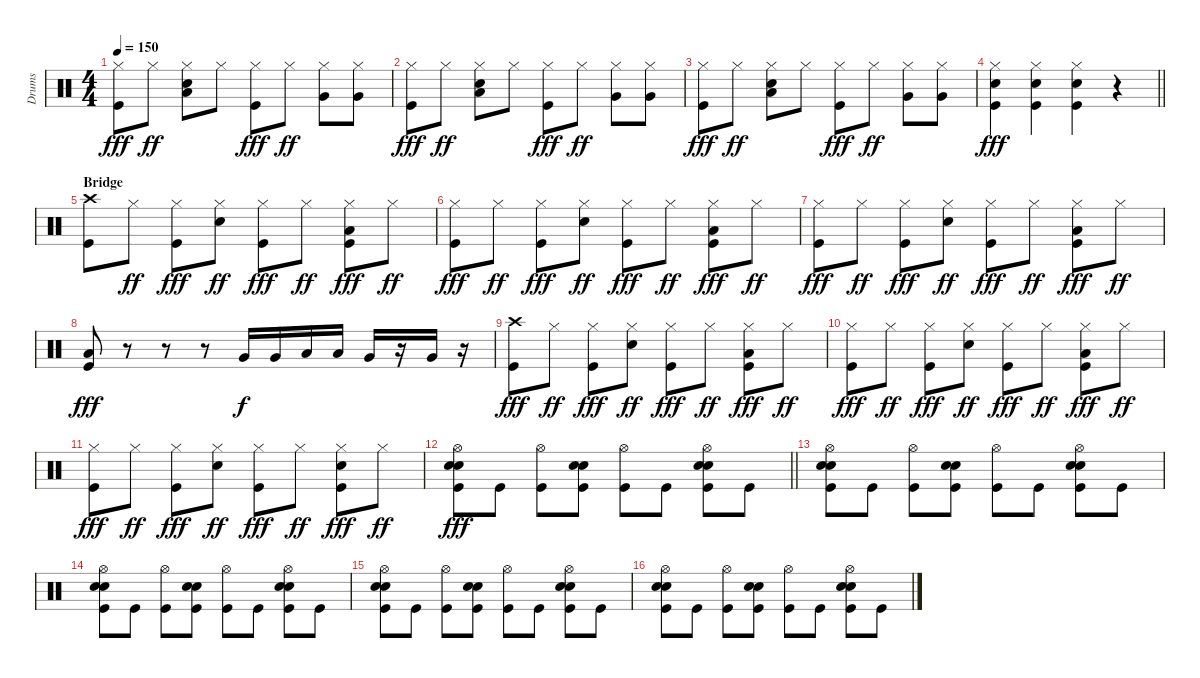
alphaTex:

\track ("Drums" "Drums") {instrument percussion}
\staff {score}
\articulation defaults
\ts (4 4)
\tempo 150
\clef neutral
\ks c
("Hi-Hat (closed)" "Kick (hit)").8{dy fff} "Hi-Hat (closed)".8{dy ff} ("Hi-Hat (closed)" "Snare (hit) 2" "Low Floor Tom (hit)").8 "Hi-Hat (closed)".8 ("Hi-Hat (closed)" "Kick (hit)").8{dy fff} "Hi-Hat (closed)".8{dy ff} ("Hi-Hat (closed)" "Very Low Tom (hit)").8 ("Hi-Hat (closed)" "Very Low Tom (hit)").8 |
("Hi-Hat (closed)" "Kick (hit)").8{dy fff} "Hi-Hat (closed)".8{dy ff} ("Hi-Hat (closed)" "Snare (hit) 2" "Low Floor Tom (hit)").8 "Hi-Hat (closed)".8 ("Hi-Hat (closed)" "Kick (hit)").8{dy fff} "Hi-Hat (closed)".8{dy ff} ("Hi-Hat (closed)" "Very Low Tom (hit)").8 ("Hi-Hat (closed)" "Very Low Tom (hit)").8 |
("Hi-Hat (closed)" "Kick (hit)").8{dy fff} "Hi-Hat (closed)".8{dy ff} ("Hi-Hat (closed)" "Snare (hit) 2" "Low Floor Tom (hit)").8 "Hi-Hat (closed)".8 ("Hi-Hat (closed)" "Kick (hit)").8{dy fff} "Hi-Hat (closed)".8{dy ff} ("Hi-Hat (closed)" "Very Low Tom (hit)").8 ("Hi-Hat (closed)" "Very Low Tom (hit)").8 |
\barLineRight lightlight
("Hi-Hat (closed)" "Snare (hit) 2" "Kick (hit)").4{dy fff} ("Hi-Hat (closed)" "Snare (hit) 2" "Kick (hit)").4 ("Hi-Hat (closed)" "Snare (hit) 2" "Kick (hit)").4 r.4 |
\section ("" "Bridge")
("Crash high (hit)" "Kick (hit)").8 "Hi-Hat (closed)".8{dy ff} ("Hi-Hat (closed)" "Kick (hit)").8{dy fff} ("Hi-Hat (closed)" "Electric Snare (hit)").8{dy ff} ("Hi-Hat (closed)" "Kick (hit)").8{dy fff} "Hi-Hat (closed)".8{dy ff} ("Hi-Hat (closed)" "Low Floor Tom (hit)" "Kick (hit)").8{dy fff} "Hi-Hat (closed)".8{dy ff} |
("Hi-Hat (closed)" "Kick (hit)").8{dy fff} "Hi-Hat (closed)".8{dy ff} ("Hi-Hat (closed)" "Kick (hit)").8{dy fff} ("Hi-Hat (closed)" "Electric Snare (hit)").8{dy ff} ("Hi-Hat (closed)" "Kick (hit)").8{dy fff} "Hi-Hat (closed)".8{dy ff} ("Hi-Hat (closed)" "Low Floor Tom (hit)" "Kick (hit)").8{dy fff} "Hi-Hat (closed)".8{dy ff} |
("Hi-Hat (closed)" "Kick (hit)").8{dy fff} "Hi-Hat (closed)".8{dy ff} ("Hi-Hat (closed)" "Kick (hit)").8{dy fff} ("Hi-Hat (closed)" "Electric Snare (hit)").8{dy ff} ("Hi-Hat (closed)" "Kick (hit)").8{dy fff} "Hi-Hat (closed)".8{dy ff} ("Hi-Hat (closed)" "Low Floor Tom (hit)" "Kick (hit)").8{dy fff} "Hi-Hat (closed)".8{dy ff} |
("Low Floor Tom (hit)" "Kick (hit)").8{dy fff} r.8 r.8 r.8 "Very Low Tom (hit)".16{dy f} "Very Low Tom (hit)".16 "Low Floor Tom (hit)".16 "Low Floor Tom (hit)".16 "Very Low Tom (hit)".16 r.16 "Very Low Tom (hit)".16 r.16 |
("Crash high (hit)" "Kick (hit)").8{dy fff} "Hi-Hat (closed)".8{dy ff} ("Hi-Hat (closed)" "Kick (hit)").8{dy fff} ("Hi-Hat (closed)" "Electric Snare (hit)").8{dy ff} ("Hi-Hat (closed)" "Kick (hit)").8{dy fff} "Hi-Hat (closed)".8{dy ff} ("Hi-Hat (closed)" "Low Floor Tom (hit)" "Kick (hit)").8{dy fff} "Hi-Hat (closed)".8{dy ff} |
("Hi-Hat (closed)" "Kick (hit)").8{dy fff} "Hi-Hat (closed)".8{dy ff} ("Hi-Hat (closed)" "Kick (hit)").8{dy fff} ("Hi-Hat (closed)" "Electric Snare (hit)").8{dy ff} ("Hi-Hat (closed)" "Kick (hit)").8{dy fff} "Hi-Hat (closed)".8{dy ff} ("Hi-Hat (closed)" "Low Floor Tom (hit)" "Kick (hit)").8{dy fff} "Hi-Hat (closed)".8{dy ff} |
("Hi-Hat (closed)" "Kick (hit)").8{dy fff} "Hi-Hat (closed)".8{dy ff} ("Hi-Hat (closed)" "Kick (hit)").8{dy fff} ("Hi-Hat (closed)" "Electric Snare (hit)").8{dy ff} ("Hi-Hat (closed)" "Kick (hit)").8{dy fff} "Hi-Hat (closed)".8{dy ff} ("Hi-Hat (closed)" "Electric Snare (hit)" "Kick (hit)").8{dy fff} "Hi-Hat (closed)".8{dy ff} |
\barLineRight lightlight
("Hi-Hat (open)" "Electric Snare (hit)" "Snare (hit) 2" "Kick (hit)").8{dy fff} "Kick (hit)".8 ("Hi-Hat (open)" "Kick (hit)").8 ("Electric Snare (hit)" "Snare (hit) 2" "Kick (hit)").8 ("Hi-Hat (open)" "Kick (hit)").8 "Kick (hit)".8 ("Hi-Hat (open)" "Electric Snare (hit)" "Snare (hit) 2" "Kick (hit)").8 "Kick (hit)".8 |
("Hi-Hat (open)" "Electric Snare (hit)" "Snare (hit) 2" "Kick (hit)").8 "Kick (hit)".8 ("Hi-Hat (open)" "Kick (hit)").8 ("Electric Snare (hit)" "Snare (hit) 2" "Kick (hit)").8 ("Hi-Hat (open)" "Kick (hit)").8 "Kick (hit)".8 ("Hi-Hat (open)" "Electric Snare (hit)" "Snare (hit) 2" "Kick (hit)").8 "Kick (hit)".8 |
("Hi-Hat (open)" "Electric Snare (hit)" "Snare (hit) 2" "Kick (hit)").8 "Kick (hit)".8 ("Hi-Hat (open)" "Kick (hit)").8 ("Electric Snare (hit)" "Snare (hit) 2" "Kick (hit)").8 ("Hi-Hat (open)" "Kick (hit)").8 "Kick (hit)".8 ("Hi-Hat (open)" "Electric Snare (hit)" "Snare (hit) 2" "Kick (hit)").8 "Kick (hit)".8 |
("Hi-Hat (open)" "Electric Snare (hit)" "Snare (hit) 2" "Kick (hit)").8 "Kick (hit)".8 ("Hi-Hat (open)" "Kick (hit)").8 ("Electric Snare (hit)" "Snare (hit) 2" "Kick (hit)").8 ("Hi-Hat (open)" "Kick (hit)").8 "Kick (hit)".8 ("Hi-Hat (open)" "Electric Snare (hit)" "Snare (hit) 2" "Kick (hit)").8 "Kick (hit)".8 |
("Hi-Hat (open)" "Electric Snare (hit)" "Snare (hit) 2" "Kick (hit)").8 "Kick (hit)".8 ("Hi-Hat (open)" "Kick (hit)").8 ("Electric Snare (hit)" "Snare (hit) 2" "Kick (hit)").8 ("Hi-Hat (open)" "Kick (hit)").8 "Kick (hit)".8 ("Hi-Hat (open)" "Electric Snare (hit)" "Snare (hit) 2" "Kick (hit)").8 "Kick (hit)".8
